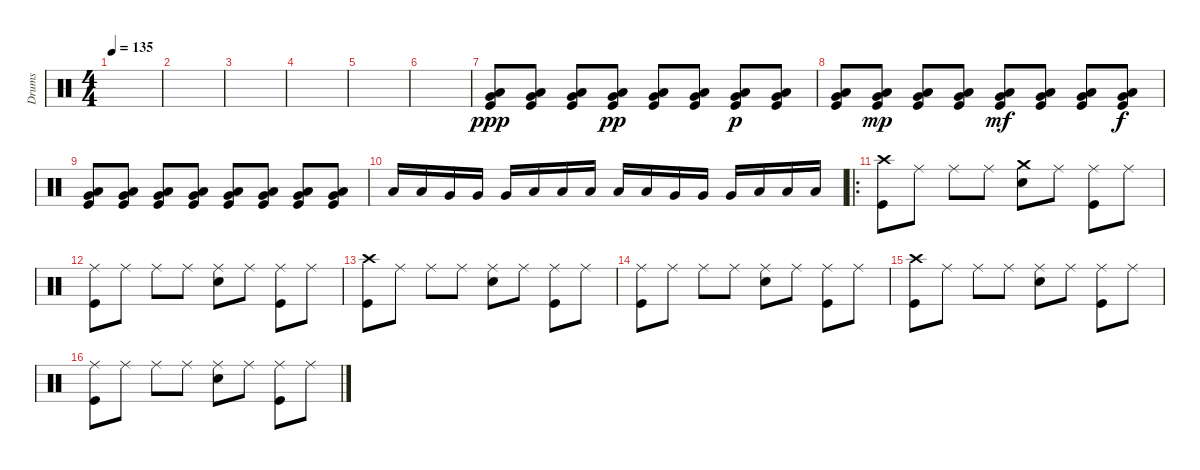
\track ("Drums" "Drums") {instrument percussion}
\staff {score}
\articulation defaults
\ts (4 4)
\tempo 135
\clef neutral
\ks c
|
|
|
|
|
|
("Kick (hit)" "Low Floor Tom (hit)" "Very Low Tom (hit)").8{dy ppp} ("Kick (hit)" "Low Floor Tom (hit)" "Very Low Tom (hit)").8 ("Kick (hit)" "Low Floor Tom (hit)" "Very Low Tom (hit)").8 ("Kick (hit)" "Low Floor Tom (hit)" "Very Low Tom (hit)").8{dy pp} ("Kick (hit)" "Low Floor Tom (hit)" "Very Low Tom (hit)").8 ("Kick (hit)" "Low Floor Tom (hit)" "Very Low Tom (hit)").8 ("Kick (hit)" "Low Floor Tom (hit)" "Very Low Tom (hit)").8{dy p} ("Kick (hit)" "Low Floor Tom (hit)" "Very Low Tom (hit)").8 |
("Kick (hit)" "Low Floor Tom (hit)" "Very Low Tom (hit)").8 ("Kick (hit)" "Low Floor Tom (hit)" "Very Low Tom (hit)").8{dy mp} ("Kick (hit)" "Low Floor Tom (hit)" "Very Low Tom (hit)").8 ("Kick (hit)" "Low Floor Tom (hit)" "Very Low Tom (hit)").8 ("Kick (hit)" "Low Floor Tom (hit)" "Very Low Tom (hit)").8{dy mf} ("Kick (hit)" "Low Floor Tom (hit)" "Very Low Tom (hit)").8 ("Kick (hit)" "Low Floor Tom (hit)" "Very Low Tom (hit)").8 ("Kick (hit)" "Low Floor Tom (hit)" "Very Low Tom (hit)").8{dy f} |
("Kick (hit)" "Low Floor Tom (hit)" "Very Low Tom (hit)").8 ("Kick (hit)" "Low Floor Tom (hit)" "Very Low Tom (hit)").8 ("Kick (hit)" "Low Floor Tom (hit)" "Very Low Tom (hit)").8 ("Kick (hit)" "Low Floor Tom (hit)" "Very Low Tom (hit)").8 ("Kick (hit)" "Low Floor Tom (hit)" "Very Low Tom (hit)").8 ("Kick (hit)" "Low Floor Tom (hit)" "Very Low Tom (hit)").8 ("Kick (hit)" "Low Floor Tom (hit)" "Very Low Tom (hit)").8 ("Kick (hit)" "Low Floor Tom (hit)" "Very Low Tom (hit)").8 |
"Low Tom (hit)".16 "Low Tom (hit)".16 "Very Low Tom (hit)".16 "Very Low Tom (hit)".16 "Very Low Tom (hit)".16 "Low Floor Tom (hit)".16 "Low Floor Tom (hit)".16 "Low Floor Tom (hit)".16 "Low Tom (hit)".16 "Low Tom (hit)".16 "Very Low Tom (hit)".16 "Very Low Tom (hit)".16 "Very Low Tom (hit)".16 "Low Floor Tom (hit)".16 "Low Floor Tom (hit)".16 "Low Floor Tom (hit)".16 |
\ro
("Kick (hit)" "Crash high (hit)").8 "Ride (middle)".8 "Ride (middle)".8 "Ride (middle)".8 ("Crash medium (hit)" "Snare (hit) 2").8 "Ride (middle)".8 ("Kick (hit)" "Ride (middle)").8 "Ride (middle)".8 |
("Kick (hit)" "Ride (middle)").8 "Ride (middle)".8 "Ride (middle)".8 "Ride (middle)".8 ("Ride (middle)" "Snare (hit) 2").8 "Ride (middle)".8 ("Kick (hit)" "Ride (middle)").8 "Ride (middle)".8 |
("Kick (hit)" "Crash high (hit)").8 "Ride (middle)".8 "Ride (middle)".8 "Ride (middle)".8 ("Ride (middle)" "Snare (hit) 2").8 "Ride (middle)".8 ("Kick (hit)" "Ride (middle)").8 "Ride (middle)".8 |
("Kick (hit)" "Ride (middle)").8 "Ride (middle)".8 "Ride (middle)".8 "Ride (middle)".8 ("Ride (middle)" "Snare (hit) 2").8 "Ride (middle)".8 ("Kick (hit)" "Ride (middle)").8 "Ride (middle)".8 |
("Kick (hit)" "Crash high (hit)").8 "Ride (middle)".8 "Ride (middle)".8 "Ride (middle)".8 ("Ride (middle)" "Snare (hit) 2").8 "Ride (middle)".8 ("Kick (hit)" "Ride (middle)").8 "Ride (middle)".8 |
("Kick (hit)" "Ride (middle)").8 "Ride (middle)".8 "Ride (middle)".8 "Ride (middle)".8 ("Ride (middle)" "Snare (hit) 2").8 "Ride (middle)".8 ("Kick (hit)" "Ride (middle)").8 "Ride (middle)".8
